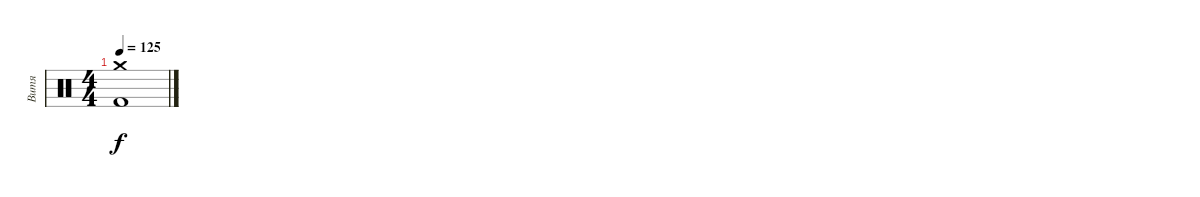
\track ("Витя" "Витя") {instrument percussion}
\staff {score}
\articulation defaults
\ts (4 4)
\tempo 125
\clef neutral
\ks c
("Crash medium (hit)" "Kick (hit) 2").1{dy f}
